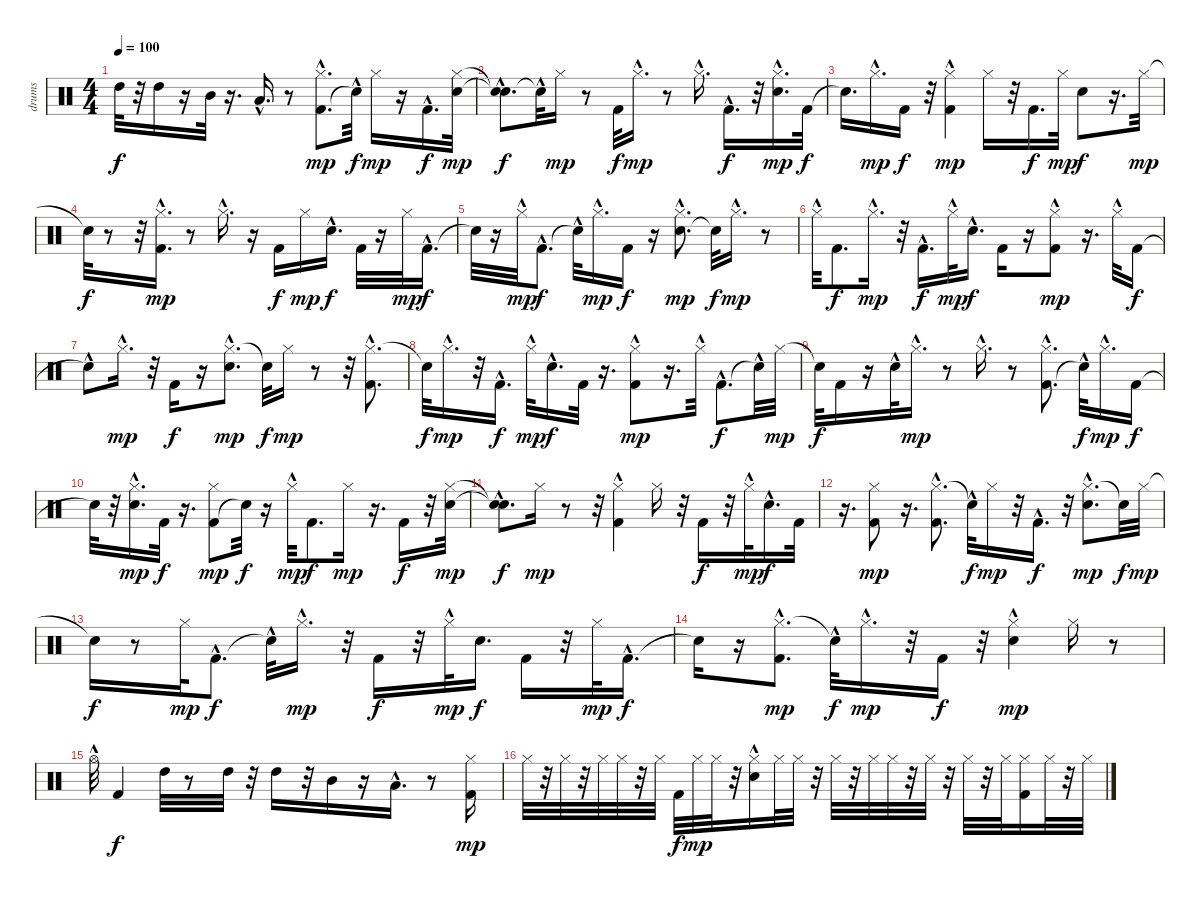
\track ("drums" "drums") {instrument percussion}
\staff {score}
\articulation defaults
\ts (4 4)
\tempo 100
\clef neutral
\ks c "High Tom (hit)".32{dy f}
r.32 "High Tom (hit)".16 r.16 "Mid Tom (hit)".32 r.16{d} "Low Tom (hit)"{hac}.16{d} r.8 ("Kick (hit) 2"{hac} "Hi-Hat (closed)").8{d dy mp} "Snare (hit)"{hac t}.32{dy f} "Hi-Hat (closed)".16{dy mp} r.16 "Kick (hit) 2"{hac}.16{d dy f} ("Hi-Hat (closed)" "Electric Snare (hit)").32{dy mp} |
("Snare (hit)"{t} "Snare (hit)"{hac t}).8{d dy f} "Snare (hit)"{hac t}.32 "Hi-Hat (closed)".16{dy mp} r.8 "Kick (hit) 2".32{dy f} "Hi-Hat (closed)"{hac}.16{d dy mp} r.8 "Hi-Hat (closed)"{hac}.16{d} "Kick (hit) 2"{hac}.16{d dy f} r.32 ("Electric Snare (hit)"{hac} "Hi-Hat (closed)"{hac}).16{d dy mp} "Kick (hit) 2".32{dy f} |
"Snare (hit)"{t}.16{d} "Hi-Hat (closed)"{hac}.16{d dy mp} "Kick (hit) 2".16{dy f} r.32 ("Kick (hit) 2" "Hi-Hat (closed)"{hac}).4{dy mp} "Hi-Hat (closed)".16 r.32 "Kick (hit) 2".16{d dy f} "Hi-Hat (closed)".32{dy mp} "Electric Snare (hit)".8{dy f} r.16{d} "Hi-Hat (closed)".32{dy mp} |
"Snare (hit)"{t}.32{dy f} r.8 r.32 ("Hi-Hat (closed)"{hac} "Kick (hit) 2").16{d dy mp} r.8 "Hi-Hat (closed)"{hac}.16{d} r.16 "Kick (hit) 2".16{dy f} "Hi-Hat (closed)".16{dy mp} "Electric Snare (hit)"{hac}.16{d dy f} "Kick (hit) 2".32 r.16 "Hi-Hat (closed)".32{dy mp} "Kick (hit) 2"{hac}.16{d dy f} |
"Snare (hit)"{t}.32 r.16 "Hi-Hat (closed)"{hac}.32{dy mp} "Kick (hit) 2"{hac}.8{d dy f} "Snare (hit)"{hac t}.32 "Hi-Hat (closed)"{hac}.16{d dy mp} "Kick (hit) 2".16{dy f} r.16 ("Electric Snare (hit)"{hac} "Hi-Hat (closed)").8{d dy mp} "Snare (hit)"{t}.32{dy f} "Hi-Hat (closed)"{hac}.16{d dy mp} r.8 |
"Hi-Hat (closed)"{hac}.32 "Kick (hit) 2".8{d dy f} "Hi-Hat (closed)"{hac}.16{d dy mp} r.32 "Kick (hit) 2"{hac}.16{d dy f} "Hi-Hat (closed)"{hac}.32{dy mp} "Electric Snare (hit)"{hac}.16{d dy f} "Kick (hit) 2".16 r.16 ("Hi-Hat (closed)"{hac} "Kick (hit) 2").8{dy mp} r.16{d} "Hi-Hat (closed)"{hac}.32 "Kick (hit) 2".16{dy f} |
"Snare (hit)"{hac t}.8 "Hi-Hat (closed)"{hac}.16{d dy mp} r.32 "Kick (hit) 2".16{dy f} r.16 ("Hi-Hat (closed)"{hac} "Electric Snare (hit)"{hac}).8{d dy mp} "Snare (hit)"{t}.32{dy f} "Hi-Hat (closed)".16{dy mp} r.8 r.32 ("Hi-Hat (closed)"{hac} "Kick (hit) 2"{hac}).8{d} |
"Snare (hit)"{t}.32{dy f} "Hi-Hat (closed)"{hac}.16{d dy mp} r.32 "Kick (hit) 2"{hac}.16{d dy f} "Hi-Hat (closed)"{hac}.32{dy mp} "Electric Snare (hit)"{hac}.16{d dy f} "Kick (hit) 2".32 r.16{d} ("Hi-Hat (closed)"{hac} "Kick (hit) 2").8{dy mp} r.16{d} "Hi-Hat (closed)"{hac}.32 "Kick (hit) 2"{hac}.8{d dy f} "Snare (hit)"{hac t}.32 "Hi-Hat (closed)".32{dy mp} |
"Snare (hit)"{t}.32{dy f} "Kick (hit) 2".16 r.16 "Electric Snare (hit)"{hac}.32 "Hi-Hat (closed)"{hac}.16{d dy mp} r.8 "Hi-Hat (closed)"{hac}.16{d} r.8 ("Kick (hit) 2"{hac} "Hi-Hat (closed)"{hac}).8{d} "Snare (hit)"{hac t}.32{dy f} "Hi-Hat (closed)"{hac}.16{d dy mp} "Kick (hit) 2".16{dy f} |
"Snare (hit)"{t}.32 r.32 ("Electric Snare (hit)"{hac} "Hi-Hat (closed)"{hac}).16{d dy mp} "Kick (hit) 2".32{dy f} r.16{d} ("Kick (hit) 2" "Hi-Hat (closed)").8{dy mp} "Snare (hit)"{t}.32{dy f} r.16 "Hi-Hat (closed)"{hac}.32{dy mp} "Kick (hit) 2".8{d dy f} "Hi-Hat (closed)".16{dy mp} r.16{d} "Kick (hit) 2".16{dy f} r.32 ("Hi-Hat (closed)" "Electric Snare (hit)").32{dy mp} |
("Snare (hit)"{t} "Snare (hit)"{hac t}).8{d dy f} "Hi-Hat (closed)".16{dy mp} r.8 r.32 ("Kick (hit) 2" "Hi-Hat (closed)"{hac}).4 "Hi-Hat (closed)".16 r.32 "Kick (hit) 2".16{dy f} r.32 "Hi-Hat (closed)"{hac}.32{dy mp} "Electric Snare (hit)"{hac}.16{d dy f} "Kick (hit) 2".32 |
r.16{d} ("Kick (hit) 2" "Hi-Hat (closed)").8{dy mp} r.16{d} ("Hi-Hat (closed)"{hac} "Kick (hit) 2"{hac}).8{d} "Snare (hit)"{hac t}.32{dy f} "Hi-Hat (closed)".16{dy mp} r.32 "Kick (hit) 2"{hac}.16{d dy f} r.32 ("Hi-Hat (closed)"{hac} "Electric Snare (hit)"{hac}).8{d dy mp} "Snare (hit)"{t}.32{dy f} "Hi-Hat (closed)".32{dy mp} |
"Snare (hit)"{t}.16{dy f} r.8 "Hi-Hat (closed)".32{dy mp} "Kick (hit) 2"{hac}.8{d dy f} "Snare (hit)"{hac t}.32 "Hi-Hat (closed)"{hac}.16{d dy mp} r.32 "Kick (hit) 2".16{dy f} r.32 "Hi-Hat (closed)"{hac}.32{dy mp} "Electric Snare (hit)".16{d dy f} "Kick (hit) 2".16 r.32 "Hi-Hat (closed)".32{dy mp} "Kick (hit) 2"{hac}.16{d dy f} |
"Snare (hit)"{t}.16 r.16 ("Hi-Hat (closed)"{hac} "Kick (hit) 2"{hac}).8{d dy mp} "Snare (hit)"{hac t}.32{dy f} "Hi-Hat (closed)"{hac}.16{d dy mp} r.32 "Kick (hit) 2".16{dy f} r.32 ("Hi-Hat (closed)"{hac} "Electric Snare (hit)"{hac}).4{dy mp} "Hi-Hat (closed)".16 r.8 |
"Hi-Hat (open)"{hac}.32 "Kick (hit) 2".4{dy f} "High Tom (hit)".32 r.8 "High Tom (hit)".32 r.32 "High Tom (hit)".16 r.32 "Mid Tom (hit)".16 r.16 "Low Tom (hit)"{hac}.16{d} r.8 ("Kick (hit) 2" "Hi-Hat (closed)").16{dy mp} |
"Hi-Hat (closed)".32 r.32 "Hi-Hat (closed)".32 r.32 "Hi-Hat (closed)".32 "Hi-Hat (closed)".32 r.32 "Hi-Hat (closed)".32 "Kick (hit) 2".32{dy f} "Hi-Hat (closed)".32{dy mp} "Hi-Hat (closed)".32 r.32 ("Electric Snare (hit)"{hac} "Hi-Hat (closed)").16 "Hi-Hat (closed)".32 "Hi-Hat (closed)".32 r.32 "Hi-Hat (closed)".32 r.32 "Hi-Hat (closed)".32 "Hi-Hat (closed)".32 r.32 "Hi-Hat (closed)".32 r.32 "Hi-Hat (closed)".32 r.32 "Hi-Hat (closed)".32 ("Kick (hit) 2" "Hi-Hat (closed)").16 "Hi-Hat (closed)".32 r.32 "Hi-Hat (closed)".32
